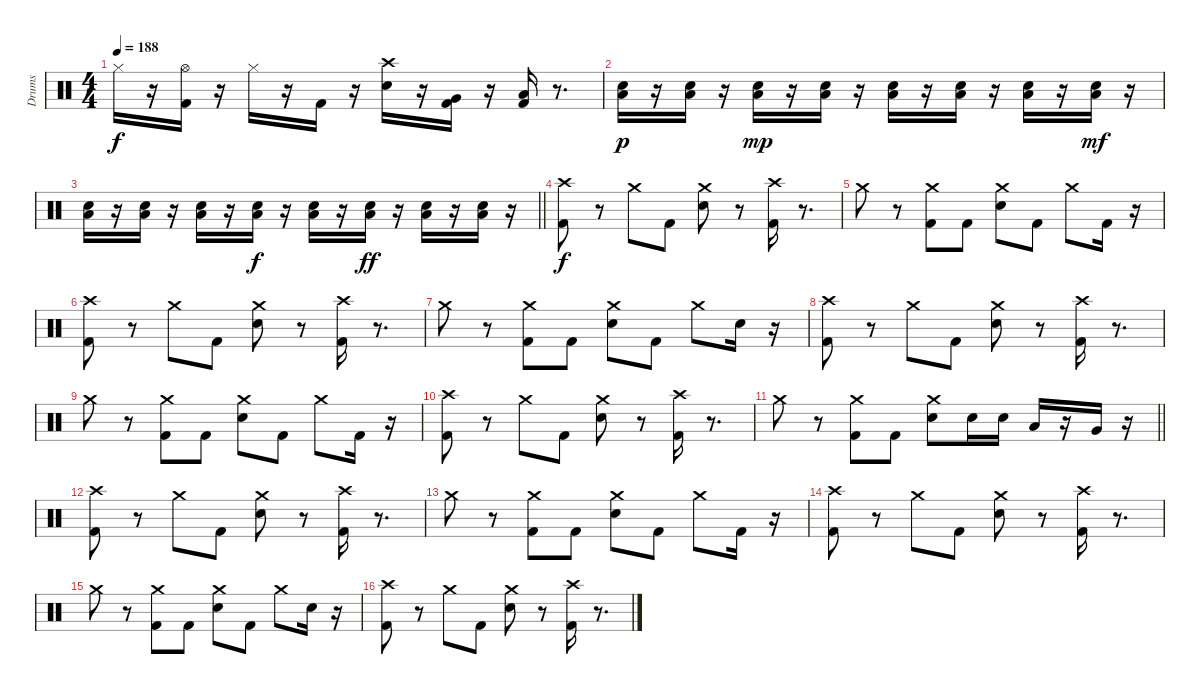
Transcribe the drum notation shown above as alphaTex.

\track ("Drums" "Drums") {instrument percussion}
\staff {score}
\articulation defaults
\ts (4 4)
\tempo 188
\clef neutral
\ks c "Hi-Hat (closed)".16{dy f}
r.16 ("Kick (hit) 2" "Hi-Hat (open)").16 r.16 "Hi-Hat (closed)".16 r.16 "Kick (hit) 2".16 r.16 ("Snare (hit) 2" "Crash high (hit)").16 r.16 ("Kick (hit) 2" "Very Low Tom (hit)").16 r.16 ("Kick (hit) 2" "Low Floor Tom (hit)").16 r.8{d} |
("Snare (hit) 2" "Low Floor Tom (hit)").16{dy p} r.16 ("Snare (hit) 2" "Low Floor Tom (hit)").16 r.16 ("Snare (hit) 2" "Low Floor Tom (hit)").16{dy mp} r.16 ("Snare (hit) 2" "Low Floor Tom (hit)").16 r.16 ("Snare (hit) 2" "Low Floor Tom (hit)").16 r.16 ("Snare (hit) 2" "Low Floor Tom (hit)").16 r.16 ("Snare (hit) 2" "Low Floor Tom (hit)").16 r.16 ("Snare (hit) 2" "Low Floor Tom (hit)").16{dy mf} r.16 |
\barLineRight lightlight
("Snare (hit) 2" "Low Floor Tom (hit)").16 r.16 ("Snare (hit) 2" "Low Floor Tom (hit)").16 r.16 ("Snare (hit) 2" "Low Floor Tom (hit)").16 r.16 ("Snare (hit) 2" "Low Floor Tom (hit)").16{dy f} r.16 ("Snare (hit) 2" "Low Floor Tom (hit)").16 r.16 ("Snare (hit) 2" "Low Floor Tom (hit)").16{dy ff} r.16 ("Snare (hit) 2" "Low Floor Tom (hit)").16 r.16 ("Snare (hit) 2" "Low Floor Tom (hit)").16 r.16 |
\section ("" " ")
("Kick (hit) 2" "Crash high (hit)").8{dy f} r.8 "Crash medium (hit)".8 "Kick (hit) 2".8 ("Snare (hit) 2" "Crash medium (hit)").8 r.8 ("Kick (hit) 2" "Crash high (hit)").16 r.8{d} |
"Crash medium (hit)".8 r.8 ("Kick (hit) 2" "Crash medium (hit)").8 "Kick (hit) 2".8 ("Snare (hit) 2" "Crash medium (hit)").8 "Kick (hit) 2".8 "Crash medium (hit)".8 "Kick (hit) 2".16 r.16 |
("Kick (hit) 2" "Crash high (hit)").8 r.8 "Crash medium (hit)".8 "Kick (hit) 2".8 ("Snare (hit) 2" "Crash medium (hit)").8 r.8 ("Kick (hit) 2" "Crash high (hit)").16 r.8{d} |
"Crash medium (hit)".8 r.8 ("Kick (hit) 2" "Crash medium (hit)").8 "Kick (hit) 2".8 ("Snare (hit) 2" "Crash medium (hit)").8 "Kick (hit) 2".8 "Crash medium (hit)".8 "Snare (hit) 2".16 r.16 |
("Kick (hit) 2" "Crash high (hit)").8 r.8 "Crash medium (hit)".8 "Kick (hit) 2".8 ("Snare (hit) 2" "Crash medium (hit)").8 r.8 ("Kick (hit) 2" "Crash high (hit)").16 r.8{d} |
"Crash medium (hit)".8 r.8 ("Kick (hit) 2" "Crash medium (hit)").8 "Kick (hit) 2".8 ("Snare (hit) 2" "Crash medium (hit)").8 "Kick (hit) 2".8 "Crash medium (hit)".8 "Kick (hit) 2".16 r.16 |
("Kick (hit) 2" "Crash high (hit)").8 r.8 "Crash medium (hit)".8 "Kick (hit) 2".8 ("Snare (hit) 2" "Crash medium (hit)").8 r.8 ("Kick (hit) 2" "Crash high (hit)").16 r.8{d} |
\barLineRight lightlight "Crash medium (hit)".8
r.8 ("Kick (hit) 2" "Crash medium (hit)").8 "Kick (hit) 2".8 ("Snare (hit) 2" "Crash medium (hit)").8 "Snare (hit) 2".16 "Snare (hit) 2".16 "Low Tom (hit)".16 r.16 "Very Low Tom (hit)".16 r.16 |
\section ("" " ")
("Kick (hit) 2" "Crash high (hit)").8 r.8 "Crash medium (hit)".8 "Kick (hit) 2".8 ("Snare (hit) 2" "Crash medium (hit)").8 r.8 ("Kick (hit) 2" "Crash high (hit)").16 r.8{d} |
"Crash medium (hit)".8 r.8 ("Kick (hit) 2" "Crash medium (hit)").8 "Kick (hit) 2".8 ("Snare (hit) 2" "Crash medium (hit)").8 "Kick (hit) 2".8 "Crash medium (hit)".8 "Kick (hit) 2".16 r.16 |
("Kick (hit) 2" "Crash high (hit)").8 r.8 "Crash medium (hit)".8 "Kick (hit) 2".8 ("Snare (hit) 2" "Crash medium (hit)").8 r.8 ("Kick (hit) 2" "Crash high (hit)").16 r.8{d} |
"Crash medium (hit)".8 r.8 ("Kick (hit) 2" "Crash medium (hit)").8 "Kick (hit) 2".8 ("Snare (hit) 2" "Crash medium (hit)").8 "Kick (hit) 2".8 "Crash medium (hit)".8 "Snare (hit) 2".16 r.16 |
("Kick (hit) 2" "Crash high (hit)").8 r.8 "Crash medium (hit)".8 "Kick (hit) 2".8 ("Snare (hit) 2" "Crash medium (hit)").8 r.8 ("Kick (hit) 2" "Crash high (hit)").16 r.8{d}
